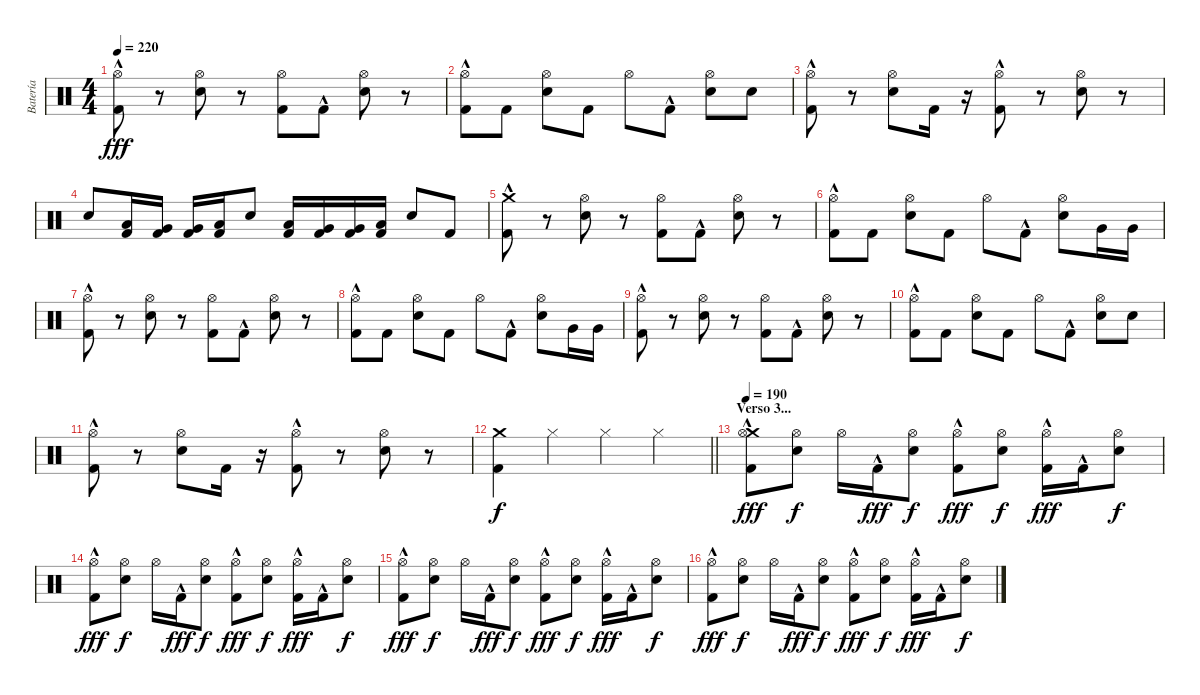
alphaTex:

\track ("Batería" "Batería") {instrument percussion}
\staff {score}
\articulation defaults
\ts (4 4)
\tempo 220
\clef neutral
\ks c
("Hi-Hat (open)" "Kick (hit) 2"{hac}).8{dy fff} r.8 ("Hi-Hat (open)" "Snare (hit) 2").8 r.8 ("Hi-Hat (open)" "Kick (hit) 2").8 "Kick (hit) 2"{hac}.8 ("Hi-Hat (open)" "Snare (hit) 2").8 r.8 |
("Hi-Hat (open)" "Kick (hit) 2"{hac}).8 "Kick (hit) 2".8 ("Hi-Hat (open)" "Snare (hit) 2").8 "Kick (hit) 2".8 "Hi-Hat (open)".8 "Kick (hit) 2"{hac}.8 ("Hi-Hat (open)" "Snare (hit) 2").8 "Snare (hit) 2".8 |
("Hi-Hat (open)" "Kick (hit) 2"{hac}).8 r.8 ("Hi-Hat (open)" "Snare (hit) 2").8 "Kick (hit) 2".16 r.16 ("Hi-Hat (open)" "Kick (hit) 2"{hac}).8 r.8 ("Hi-Hat (open)" "Snare (hit) 2").8 r.8 |
"Snare (hit) 2".8 ("Low Floor Tom (hit)" "Kick (hit) 2").16 ("Very Low Tom (hit)" "Kick (hit) 2").16 ("Very Low Tom (hit)" "Kick (hit) 2").16 ("Low Floor Tom (hit)" "Kick (hit) 2").16 "Snare (hit) 2".8 ("Low Floor Tom (hit)" "Kick (hit) 2").16 ("Very Low Tom (hit)" "Kick (hit) 2").16 ("Very Low Tom (hit)" "Kick (hit) 2").16 ("Low Floor Tom (hit)" "Kick (hit) 2").16 "Snare (hit) 2".8 "Kick (hit) 2".8 |
("Crash medium (hit)" "Kick (hit) 2"{hac}).8 r.8 ("Hi-Hat (open)" "Snare (hit) 2").8 r.8 ("Hi-Hat (open)" "Kick (hit) 2").8 "Kick (hit) 2"{hac}.8 ("Hi-Hat (open)" "Snare (hit) 2").8 r.8 |
("Hi-Hat (open)" "Kick (hit) 2"{hac}).8 "Kick (hit) 2".8 ("Hi-Hat (open)" "Snare (hit) 2").8 "Kick (hit) 2".8 "Hi-Hat (open)".8 "Kick (hit) 2"{hac}.8 ("Hi-Hat (open)" "Snare (hit) 2").8 "Very Low Tom (hit)".16 "Very Low Tom (hit)".16 |
("Hi-Hat (open)" "Kick (hit) 2"{hac}).8 r.8 ("Hi-Hat (open)" "Snare (hit) 2").8 r.8 ("Hi-Hat (open)" "Kick (hit) 2").8 "Kick (hit) 2"{hac}.8 ("Hi-Hat (open)" "Snare (hit) 2").8 r.8 |
("Hi-Hat (open)" "Kick (hit) 2"{hac}).8 "Kick (hit) 2".8 ("Hi-Hat (open)" "Snare (hit) 2").8 "Kick (hit) 2".8 "Hi-Hat (open)".8 "Kick (hit) 2"{hac}.8 ("Hi-Hat (open)" "Snare (hit) 2").8 "Very Low Tom (hit)".16 "Very Low Tom (hit)".16 |
("Hi-Hat (open)" "Kick (hit) 2"{hac}).8 r.8 ("Hi-Hat (open)" "Snare (hit) 2").8 r.8 ("Hi-Hat (open)" "Kick (hit) 2").8 "Kick (hit) 2"{hac}.8 ("Hi-Hat (open)" "Snare (hit) 2").8 r.8 |
("Hi-Hat (open)" "Kick (hit) 2"{hac}).8 "Kick (hit) 2".8 ("Hi-Hat (open)" "Snare (hit) 2").8 "Kick (hit) 2".8 "Hi-Hat (open)".8 "Kick (hit) 2"{hac}.8 ("Hi-Hat (open)" "Snare (hit) 2").8 "Snare (hit) 2".8 |
("Hi-Hat (open)" "Kick (hit) 2"{hac}).8 r.8 ("Hi-Hat (open)" "Snare (hit) 2").8 "Kick (hit) 2".16 r.16 ("Hi-Hat (open)" "Kick (hit) 2"{hac}).8 r.8 ("Hi-Hat (open)" "Snare (hit) 2").8 r.8 |
\barLineRight lightlight
("Crash medium (hit)" "Kick (hit) 2").4{dy f} "Hi-Hat (closed)".4 "Hi-Hat (closed)".4 "Hi-Hat (closed)".4 |
\section ("" "Verso 3...")
\tempo 190
("Crash medium (hit)" "Hi-Hat (open)" "Kick (hit) 2"{hac}).8{dy fff} ("Snare (hit) 2" "Hi-Hat (open)").8{dy f} "Hi-Hat (open)".16 "Kick (hit) 2"{hac}.16{dy fff} ("Snare (hit) 2" "Hi-Hat (open)").8{dy f} ("Hi-Hat (open)" "Kick (hit) 2"{hac}).8{dy fff} ("Snare (hit) 2" "Hi-Hat (open)").8{dy f} ("Hi-Hat (open)" "Kick (hit) 2"{hac}).16{dy fff} "Kick (hit) 2"{hac}.16 ("Snare (hit) 2" "Hi-Hat (open)").8{dy f} |
("Hi-Hat (open)" "Kick (hit) 2"{hac}).8{dy fff} ("Snare (hit) 2" "Hi-Hat (open)").8{dy f} "Hi-Hat (open)".16 "Kick (hit) 2"{hac}.16{dy fff} ("Snare (hit) 2" "Hi-Hat (open)").8{dy f} ("Hi-Hat (open)" "Kick (hit) 2"{hac}).8{dy fff} ("Snare (hit) 2" "Hi-Hat (open)").8{dy f} ("Hi-Hat (open)" "Kick (hit) 2"{hac}).16{dy fff} "Kick (hit) 2"{hac}.16 ("Snare (hit) 2" "Hi-Hat (open)").8{dy f} |
("Hi-Hat (open)" "Kick (hit) 2"{hac}).8{dy fff} ("Snare (hit) 2" "Hi-Hat (open)").8{dy f} "Hi-Hat (open)".16 "Kick (hit) 2"{hac}.16{dy fff} ("Snare (hit) 2" "Hi-Hat (open)").8{dy f} ("Hi-Hat (open)" "Kick (hit) 2"{hac}).8{dy fff} ("Snare (hit) 2" "Hi-Hat (open)").8{dy f} ("Hi-Hat (open)" "Kick (hit) 2"{hac}).16{dy fff} "Kick (hit) 2"{hac}.16 ("Snare (hit) 2" "Hi-Hat (open)").8{dy f} |
("Hi-Hat (open)" "Kick (hit) 2"{hac}).8{dy fff} ("Snare (hit) 2" "Hi-Hat (open)").8{dy f} "Hi-Hat (open)".16 "Kick (hit) 2"{hac}.16{dy fff} ("Snare (hit) 2" "Hi-Hat (open)").8{dy f} ("Hi-Hat (open)" "Kick (hit) 2"{hac}).8{dy fff} ("Snare (hit) 2" "Hi-Hat (open)").8{dy f} ("Hi-Hat (open)" "Kick (hit) 2"{hac}).16{dy fff} "Kick (hit) 2"{hac}.16 ("Snare (hit) 2" "Hi-Hat (open)").8{dy f}
